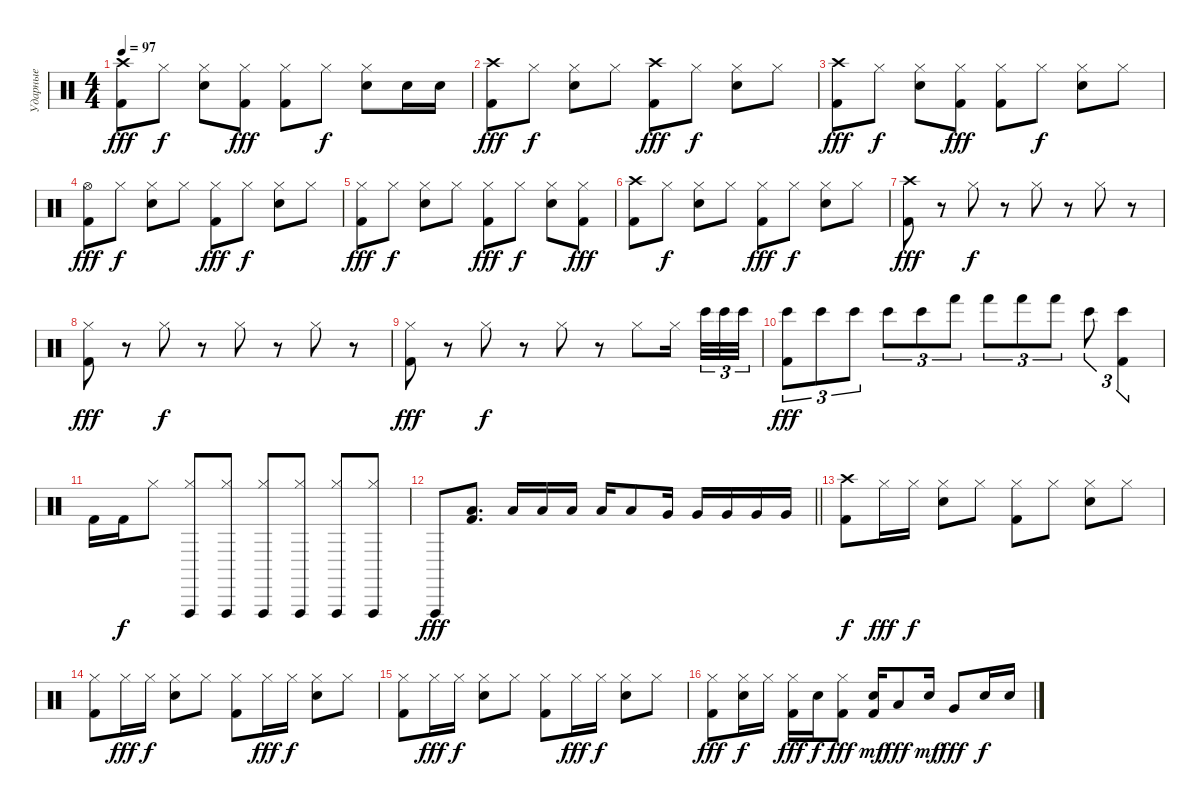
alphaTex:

\track ("Ударные" "Ударные") {instrument percussion}
\staff {score}
\articulation defaults
\ts (4 4)
\tempo 97
\clef neutral
\ks c
("Kick (hit) 2" "Crash high (hit)").8{dy fff} "Hi-Hat (closed)".8{dy f} ("Snare (hit) 2" "Hi-Hat (closed)").8 ("Kick (hit) 2" "Hi-Hat (closed)").8{dy fff} ("Kick (hit) 2" "Hi-Hat (closed)").8 "Hi-Hat (closed)".8{dy f} ("Snare (hit) 2" "Hi-Hat (closed)").8 "Snare (hit) 2".16 "Snare (hit) 2".16 |
("Kick (hit) 2" "Crash high (hit)").8{dy fff} "Hi-Hat (closed)".8{dy f} ("Snare (hit) 2" "Hi-Hat (closed)").8 "Hi-Hat (closed)".8 ("Kick (hit) 2" "Crash high (hit)").8{dy fff} "Hi-Hat (closed)".8{dy f} ("Snare (hit) 2" "Hi-Hat (closed)").8 "Hi-Hat (closed)".8 |
("Kick (hit) 2" "Crash high (hit)").8{dy fff} "Hi-Hat (closed)".8{dy f} ("Snare (hit) 2" "Hi-Hat (closed)").8 ("Kick (hit) 2" "Hi-Hat (closed)").8{dy fff} ("Kick (hit) 2" "Hi-Hat (closed)").8 "Hi-Hat (closed)".8{dy f} ("Snare (hit) 2" "Hi-Hat (closed)").8 "Hi-Hat (closed)".8 |
("Kick (hit) 2" "Hi-Hat (open)").8{dy fff} "Hi-Hat (closed)".8{dy f} ("Snare (hit) 2" "Hi-Hat (closed)").8 "Hi-Hat (closed)".8 ("Kick (hit) 2" "Hi-Hat (closed)").8{dy fff} "Hi-Hat (closed)".8{dy f} ("Snare (hit) 2" "Hi-Hat (closed)").8 "Hi-Hat (closed)".8 |
("Kick (hit) 2" "Hi-Hat (closed)").8{dy fff} "Hi-Hat (closed)".8{dy f} ("Snare (hit) 2" "Hi-Hat (closed)").8 "Hi-Hat (closed)".8 ("Kick (hit) 2" "Hi-Hat (closed)").8{dy fff} "Hi-Hat (closed)".8{dy f} ("Snare (hit) 2" "Hi-Hat (closed)").8 ("Kick (hit) 2" "Hi-Hat (closed)").8{dy fff} |
("Kick (hit) 2" "Crash high (hit)").8 "Hi-Hat (closed)".8{dy f} ("Snare (hit) 2" "Hi-Hat (closed)").8 "Hi-Hat (closed)".8 ("Kick (hit) 2" "Hi-Hat (closed)").8{dy fff} "Hi-Hat (closed)".8{dy f} ("Snare (hit) 2" "Hi-Hat (closed)").8 "Hi-Hat (closed)".8 |
("Kick (hit) 2" "Crash high (hit)").8{dy fff} r.8 "Hi-Hat (closed)".8{dy f} r.8 "Hi-Hat (closed)".8 r.8 "Hi-Hat (closed)".8 r.8 |
("Kick (hit) 2" "Hi-Hat (closed)").8{dy fff} r.8 "Hi-Hat (closed)".8{dy f} r.8 "Hi-Hat (closed)".8 r.8 "Hi-Hat (closed)".8 r.8 |
("Kick (hit) 2" "Hi-Hat (closed)").8{dy fff} r.8 "Hi-Hat (closed)".8{dy f} r.8 "Hi-Hat (closed)".8 r.8 "Hi-Hat (closed)".8 "Hi-Hat (closed)".16{beam splitsecondary} "Bongo High (hit)".32{tu (3 2)} "Bongo High (hit)".32{tu (3 2)} "Bongo High (hit)".32{tu (3 2)} |
("Kick (hit) 2" "Bongo High (hit)").8{tu (3 2) dy fff} "Bongo High (hit)".8{tu (3 2)} "Bongo High (hit)".8{tu (3 2)} "Bongo High (hit)".8{tu (3 2)} "Bongo High (hit)".8{tu (3 2)} "Hand (hit)".8{tu (3 2)} "Hand (hit)".8{tu (3 2)} "Hand (hit)".8{tu (3 2)} "Hand (hit)".8{tu (3 2)} "Bongo High (hit)".8{tu (3 2)} ("Kick (hit) 2" "Bongo High (hit)").4{tu (3 2)} |
"Kick (hit) 2".16 "Kick (hit) 2".16{dy f} "Hi-Hat (closed)".8 ("Hi-Hat (closed)" "Vibraslap (hit)").8 ("Hi-Hat (closed)" "Vibraslap (hit)").8 ("Hi-Hat (closed)" "Vibraslap (hit)").8 ("Hi-Hat (closed)" "Vibraslap (hit)").8 ("Hi-Hat (closed)" "Vibraslap (hit)").8 ("Hi-Hat (closed)" "Vibraslap (hit)").8 |
\barLineRight lightlight "Vibraslap (hit)".8{dy fff}
("Kick (hit) 2" "Low Tom (hit)").8{d} "Low Tom (hit)".16 "Low Tom (hit)".16 "Low Tom (hit)".16 "Low Tom (hit)".16 "Low Tom (hit)".8 "Very Low Tom (hit)".16 "Very Low Tom (hit)".16 "Very Low Tom (hit)".16 "Very Low Tom (hit)".16 "Very Low Tom (hit)".16 |
("Kick (hit) 2" "Crash high (hit)").8{dy f} "Hi-Hat (closed)".16{dy fff} "Hi-Hat (closed)".16{dy f} ("Snare (hit) 2" "Hi-Hat (closed)").8 "Hi-Hat (closed)".8 ("Kick (hit) 2" "Hi-Hat (closed)").8 "Hi-Hat (closed)".8 ("Snare (hit) 2" "Hi-Hat (closed)").8 "Hi-Hat (closed)".8 |
("Kick (hit) 2" "Hi-Hat (closed)").8 "Hi-Hat (closed)".16{dy fff} "Hi-Hat (closed)".16{dy f} ("Snare (hit) 2" "Hi-Hat (closed)").8 "Hi-Hat (closed)".8 ("Kick (hit) 2" "Hi-Hat (closed)").8 "Hi-Hat (closed)".16{dy fff} "Hi-Hat (closed)".16{dy f} ("Snare (hit) 2" "Hi-Hat (closed)").8 "Hi-Hat (closed)".8 |
("Kick (hit) 2" "Hi-Hat (closed)").8 "Hi-Hat (closed)".16{dy fff} "Hi-Hat (closed)".16{dy f} ("Snare (hit) 2" "Hi-Hat (closed)").8 "Hi-Hat (closed)".8 ("Kick (hit) 2" "Hi-Hat (closed)").8 "Hi-Hat (closed)".16{dy fff} "Hi-Hat (closed)".16{dy f} ("Snare (hit) 2" "Hi-Hat (closed)").8 "Hi-Hat (closed)".8 |
("Kick (hit) 2" "Hi-Hat (closed)").8{dy fff} ("Snare (hit) 2" "Hi-Hat (closed)").16{dy f} "Hi-Hat (closed)".16 ("Kick (hit) 2" "Hi-Hat (closed)").16{dy fff} "Snare (hit) 2".16{dy f} ("Kick (hit) 2" "Hi-Hat (closed)").8{dy fff} ("Kick (hit) 2" "Snare (hit) 2").16{dy mf} "Low Tom (hit)".8{dy fff} "Snare (hit) 2".16{dy mf} "Very Low Tom (hit)".8{dy fff} "Snare (hit) 2".16{dy f} "Snare (hit) 2".16
